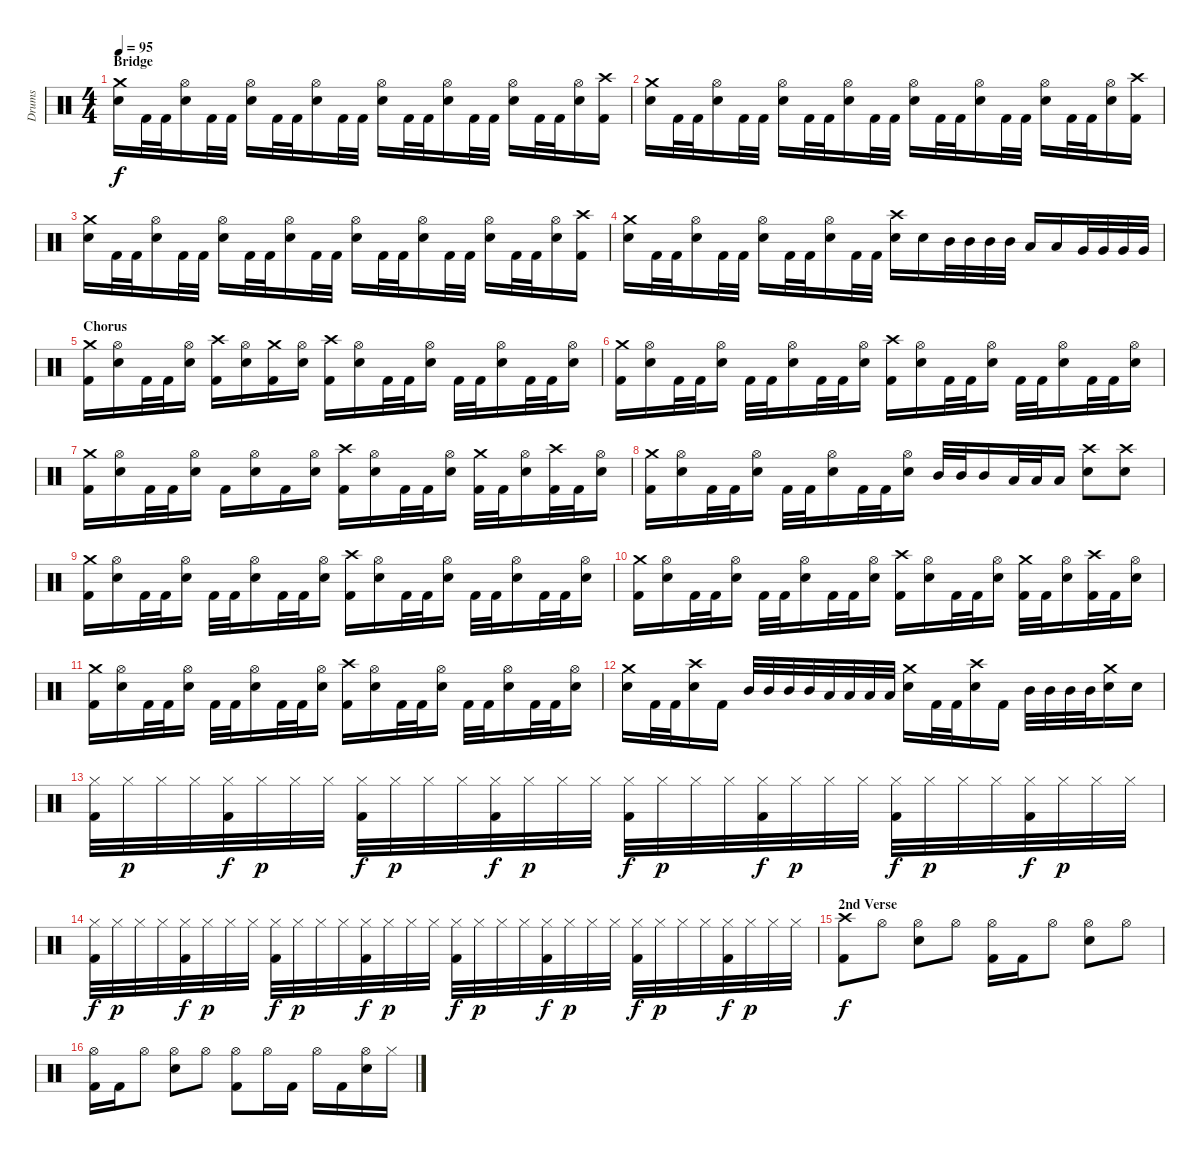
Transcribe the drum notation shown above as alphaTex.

\track ("Drums" "Drums") {instrument percussion}
\staff {score}
\articulation defaults
\ts (4 4)
\section ("" "Bridge")
\tempo 95
\clef neutral
\ks c
("Crash medium (hit)" "Snare (hit) 2").16{dy f} "Kick (hit) 2".32 "Kick (hit) 2".32 ("Hi-Hat (open)" "Snare (hit) 2").16 "Kick (hit) 2".32 "Kick (hit) 2".32 ("Hi-Hat (open)" "Snare (hit) 2").16 "Kick (hit) 2".32 "Kick (hit) 2".32 ("Hi-Hat (open)" "Snare (hit) 2").16 "Kick (hit) 2".32 "Kick (hit) 2".32 ("Hi-Hat (open)" "Snare (hit) 2").16 "Kick (hit) 2".32 "Kick (hit) 2".32 ("Hi-Hat (open)" "Snare (hit) 2").16 "Kick (hit) 2".32 "Kick (hit) 2".32 ("Hi-Hat (open)" "Snare (hit) 2").16 "Kick (hit) 2".32 "Kick (hit) 2".32 ("Hi-Hat (open)" "Snare (hit) 2").16 ("Crash high (hit)" "Kick (hit) 2").16 |
("Crash medium (hit)" "Snare (hit) 2").16 "Kick (hit) 2".32 "Kick (hit) 2".32 ("Hi-Hat (open)" "Snare (hit) 2").16 "Kick (hit) 2".32 "Kick (hit) 2".32 ("Hi-Hat (open)" "Snare (hit) 2").16 "Kick (hit) 2".32 "Kick (hit) 2".32 ("Hi-Hat (open)" "Snare (hit) 2").16 "Kick (hit) 2".32 "Kick (hit) 2".32 ("Hi-Hat (open)" "Snare (hit) 2").16 "Kick (hit) 2".32 "Kick (hit) 2".32 ("Hi-Hat (open)" "Snare (hit) 2").16 "Kick (hit) 2".32 "Kick (hit) 2".32 ("Hi-Hat (open)" "Snare (hit) 2").16 "Kick (hit) 2".32 "Kick (hit) 2".32 ("Hi-Hat (open)" "Snare (hit) 2").16 ("Crash high (hit)" "Kick (hit) 2").16 |
("Crash medium (hit)" "Snare (hit) 2").16 "Kick (hit) 2".32 "Kick (hit) 2".32 ("Hi-Hat (open)" "Snare (hit) 2").16 "Kick (hit) 2".32 "Kick (hit) 2".32 ("Hi-Hat (open)" "Snare (hit) 2").16 "Kick (hit) 2".32 "Kick (hit) 2".32 ("Hi-Hat (open)" "Snare (hit) 2").16 "Kick (hit) 2".32 "Kick (hit) 2".32 ("Hi-Hat (open)" "Snare (hit) 2").16 "Kick (hit) 2".32 "Kick (hit) 2".32 ("Hi-Hat (open)" "Snare (hit) 2").16 "Kick (hit) 2".32 "Kick (hit) 2".32 ("Hi-Hat (open)" "Snare (hit) 2").16 "Kick (hit) 2".32 "Kick (hit) 2".32 ("Hi-Hat (open)" "Snare (hit) 2").16 ("Crash high (hit)" "Kick (hit) 2").16 |
("Crash medium (hit)" "Snare (hit) 2").16 "Kick (hit) 2".32 "Kick (hit) 2".32 ("Hi-Hat (open)" "Snare (hit) 2").16 "Kick (hit) 2".32 "Kick (hit) 2".32 ("Hi-Hat (open)" "Snare (hit) 2").16 "Kick (hit) 2".32 "Kick (hit) 2".32 ("Hi-Hat (open)" "Snare (hit) 2").16 "Kick (hit) 2".32 "Kick (hit) 2".32 ("Crash high (hit)" "Snare (hit) 2").16 "Snare (hit) 2".16 "Mid Tom (hit)".32 "Mid Tom (hit)".32 "Mid Tom (hit)".32 "Mid Tom (hit)".32 "Low Tom (hit)".16 "Low Tom (hit)".16 "Very Low Tom (hit)".32 "Very Low Tom (hit)".32 "Very Low Tom (hit)".32 "Very Low Tom (hit)".32 |
\section ("" "Chorus")
("Crash medium (hit)" "Kick (hit) 2").16 ("Hi-Hat (open)" "Snare (hit) 2").16 "Kick (hit) 2".32 "Kick (hit) 2".32 ("Hi-Hat (open)" "Snare (hit) 2").16 ("Crash high (hit)" "Kick (hit) 2").16 ("Hi-Hat (open)" "Snare (hit) 2").16 ("Crash medium (hit)" "Kick (hit) 2").16 ("Hi-Hat (open)" "Snare (hit) 2").16 ("Crash high (hit)" "Kick (hit) 2").16 ("Hi-Hat (open)" "Snare (hit) 2").16 "Kick (hit) 2".32 "Kick (hit) 2".32 ("Hi-Hat (open)" "Snare (hit) 2").16 "Kick (hit) 2".32 "Kick (hit) 2".32 ("Hi-Hat (open)" "Snare (hit) 2").16 "Kick (hit) 2".32 "Kick (hit) 2".32 ("Hi-Hat (open)" "Snare (hit) 2").16 |
("Crash medium (hit)" "Kick (hit) 2").16 ("Hi-Hat (open)" "Snare (hit) 2").16 "Kick (hit) 2".32 "Kick (hit) 2".32 ("Hi-Hat (open)" "Snare (hit) 2").16 "Kick (hit) 2".32 "Kick (hit) 2".32 ("Hi-Hat (open)" "Snare (hit) 2").16 "Kick (hit) 2".32 "Kick (hit) 2".32 ("Hi-Hat (open)" "Snare (hit) 2").16 ("Crash high (hit)" "Kick (hit) 2").16 ("Hi-Hat (open)" "Snare (hit) 2").16 "Kick (hit) 2".32 "Kick (hit) 2".32 ("Hi-Hat (open)" "Snare (hit) 2").16 "Kick (hit) 2".32 "Kick (hit) 2".32 ("Hi-Hat (open)" "Snare (hit) 2").16 "Kick (hit) 2".32 "Kick (hit) 2".32 ("Hi-Hat (open)" "Snare (hit) 2").16 |
("Crash medium (hit)" "Kick (hit) 2").16 ("Hi-Hat (open)" "Snare (hit) 2").16 "Kick (hit) 2".32 "Kick (hit) 2".32 ("Hi-Hat (open)" "Snare (hit) 2").16 "Kick (hit) 2".16 ("Hi-Hat (open)" "Snare (hit) 2").16 "Kick (hit) 2".16 ("Hi-Hat (open)" "Snare (hit) 2").16 ("Crash high (hit)" "Kick (hit) 2").16 ("Hi-Hat (open)" "Snare (hit) 2").16 "Kick (hit) 2".32 "Kick (hit) 2".32 ("Hi-Hat (open)" "Snare (hit) 2").16 ("Crash medium (hit)" "Kick (hit) 2").32 "Kick (hit) 2".32 ("Hi-Hat (open)" "Snare (hit) 2").16 ("Crash high (hit)" "Kick (hit) 2").32 "Kick (hit) 2".32 ("Hi-Hat (open)" "Snare (hit) 2").16 |
("Crash medium (hit)" "Kick (hit) 2").16 ("Hi-Hat (open)" "Snare (hit) 2").16 "Kick (hit) 2".32 "Kick (hit) 2".32 ("Hi-Hat (open)" "Snare (hit) 2").16 "Kick (hit) 2".32 "Kick (hit) 2".32 ("Hi-Hat (open)" "Snare (hit) 2").16 "Kick (hit) 2".32 "Kick (hit) 2".32 ("Hi-Hat (open)" "Snare (hit) 2").16 "Mid Tom (hit)".32 "Mid Tom (hit)".32 "Mid Tom (hit)".16 "Low Tom (hit)".32 "Low Tom (hit)".32 "Low Tom (hit)".16 ("Crash high (hit)" "Snare (hit) 2").8 ("Crash high (hit)" "Snare (hit) 2").8 |
("Crash medium (hit)" "Kick (hit) 2").16 ("Hi-Hat (open)" "Snare (hit) 2").16 "Kick (hit) 2".32 "Kick (hit) 2".32 ("Hi-Hat (open)" "Snare (hit) 2").16 "Kick (hit) 2".32 "Kick (hit) 2".32 ("Hi-Hat (open)" "Snare (hit) 2").16 "Kick (hit) 2".32 "Kick (hit) 2".32 ("Hi-Hat (open)" "Snare (hit) 2").16 ("Crash high (hit)" "Kick (hit) 2").16 ("Hi-Hat (open)" "Snare (hit) 2").16 "Kick (hit) 2".32 "Kick (hit) 2".32 ("Hi-Hat (open)" "Snare (hit) 2").16 "Kick (hit) 2".32 "Kick (hit) 2".32 ("Hi-Hat (open)" "Snare (hit) 2").16 "Kick (hit) 2".32 "Kick (hit) 2".32 ("Hi-Hat (open)" "Snare (hit) 2").16 |
("Crash medium (hit)" "Kick (hit) 2").16 ("Hi-Hat (open)" "Snare (hit) 2").16 "Kick (hit) 2".32 "Kick (hit) 2".32 ("Hi-Hat (open)" "Snare (hit) 2").16 "Kick (hit) 2".32 "Kick (hit) 2".32 ("Hi-Hat (open)" "Snare (hit) 2").16 "Kick (hit) 2".32 "Kick (hit) 2".32 ("Hi-Hat (open)" "Snare (hit) 2").16 ("Crash high (hit)" "Kick (hit) 2").16 ("Hi-Hat (open)" "Snare (hit) 2").16 "Kick (hit) 2".32 "Kick (hit) 2".32 ("Hi-Hat (open)" "Snare (hit) 2").16 ("Crash medium (hit)" "Kick (hit) 2").32 "Kick (hit) 2".32 ("Hi-Hat (open)" "Snare (hit) 2").16 ("Crash high (hit)" "Kick (hit) 2").32 "Kick (hit) 2".32 ("Hi-Hat (open)" "Snare (hit) 2").16 |
("Crash medium (hit)" "Kick (hit) 2").16 ("Hi-Hat (open)" "Snare (hit) 2").16 "Kick (hit) 2".32 "Kick (hit) 2".32 ("Hi-Hat (open)" "Snare (hit) 2").16 "Kick (hit) 2".32 "Kick (hit) 2".32 ("Hi-Hat (open)" "Snare (hit) 2").16 "Kick (hit) 2".32 "Kick (hit) 2".32 ("Hi-Hat (open)" "Snare (hit) 2").16 ("Crash high (hit)" "Kick (hit) 2").16 ("Hi-Hat (open)" "Snare (hit) 2").16 "Kick (hit) 2".32 "Kick (hit) 2".32 ("Hi-Hat (open)" "Snare (hit) 2").16 "Kick (hit) 2".32 "Kick (hit) 2".32 ("Hi-Hat (open)" "Snare (hit) 2").16 "Kick (hit) 2".32 "Kick (hit) 2".32 ("Hi-Hat (open)" "Snare (hit) 2").16 |
("Crash medium (hit)" "Snare (hit) 2").16 "Kick (hit) 2".32 "Kick (hit) 2".32 ("Crash high (hit)" "Snare (hit) 2").16 "Kick (hit) 2".16 "Mid Tom (hit)".32 "Mid Tom (hit)".32 "Mid Tom (hit)".32 "Mid Tom (hit)".32 "Low Tom (hit)".32 "Low Tom (hit)".32 "Low Tom (hit)".32 "Low Tom (hit)".32 ("Crash medium (hit)" "Snare (hit) 2").16 "Kick (hit) 2".32 "Kick (hit) 2".32 ("Crash high (hit)" "Snare (hit) 2").16 "Kick (hit) 2".16 "Mid Tom (hit)".32 "Mid Tom (hit)".32 "Mid Tom (hit)".32 "Mid Tom (hit)".32 ("Crash medium (hit)" "Snare (hit) 2").16 "Snare (hit) 2".16 |
\section ("" "")
("Hi-Hat (closed)" "Kick (hit) 2").32 "Hi-Hat (closed)".32{dy p} "Hi-Hat (closed)".32 "Hi-Hat (closed)".32 ("Hi-Hat (closed)" "Kick (hit) 2").32{dy f} "Hi-Hat (closed)".32{dy p} "Hi-Hat (closed)".32 "Hi-Hat (closed)".32 ("Hi-Hat (closed)" "Kick (hit) 2").32{dy f} "Hi-Hat (closed)".32{dy p} "Hi-Hat (closed)".32 "Hi-Hat (closed)".32 ("Hi-Hat (closed)" "Kick (hit) 2").32{dy f} "Hi-Hat (closed)".32{dy p} "Hi-Hat (closed)".32 "Hi-Hat (closed)".32 ("Hi-Hat (closed)" "Kick (hit) 2").32{dy f} "Hi-Hat (closed)".32{dy p} "Hi-Hat (closed)".32 "Hi-Hat (closed)".32 ("Hi-Hat (closed)" "Kick (hit) 2").32{dy f} "Hi-Hat (closed)".32{dy p} "Hi-Hat (closed)".32 "Hi-Hat (closed)".32 ("Hi-Hat (closed)" "Kick (hit) 2").32{dy f} "Hi-Hat (closed)".32{dy p} "Hi-Hat (closed)".32 "Hi-Hat (closed)".32 ("Hi-Hat (closed)" "Kick (hit) 2").32{dy f} "Hi-Hat (closed)".32{dy p} "Hi-Hat (closed)".32 "Hi-Hat (closed)".32 |
("Hi-Hat (closed)" "Kick (hit) 2").32{dy f} "Hi-Hat (closed)".32{dy p} "Hi-Hat (closed)".32 "Hi-Hat (closed)".32 ("Hi-Hat (closed)" "Kick (hit) 2").32{dy f} "Hi-Hat (closed)".32{dy p} "Hi-Hat (closed)".32 "Hi-Hat (closed)".32 ("Hi-Hat (closed)" "Kick (hit) 2").32{dy f} "Hi-Hat (closed)".32{dy p} "Hi-Hat (closed)".32 "Hi-Hat (closed)".32 ("Hi-Hat (closed)" "Kick (hit) 2").32{dy f} "Hi-Hat (closed)".32{dy p} "Hi-Hat (closed)".32 "Hi-Hat (closed)".32 ("Hi-Hat (closed)" "Kick (hit) 2").32{dy f} "Hi-Hat (closed)".32{dy p} "Hi-Hat (closed)".32 "Hi-Hat (closed)".32 ("Hi-Hat (closed)" "Kick (hit) 2").32{dy f} "Hi-Hat (closed)".32{dy p} "Hi-Hat (closed)".32 "Hi-Hat (closed)".32 ("Hi-Hat (closed)" "Kick (hit) 2").32{dy f} "Hi-Hat (closed)".32{dy p} "Hi-Hat (closed)".32 "Hi-Hat (closed)".32 ("Hi-Hat (closed)" "Kick (hit) 2").32{dy f} "Hi-Hat (closed)".32{dy p} "Hi-Hat (closed)".32 "Hi-Hat (closed)".32 |
\section ("" "2nd Verse")
("Crash high (hit)" "Kick (hit) 2").8{dy f} "Hi-Hat (open)".8 ("Hi-Hat (open)" "Snare (hit) 2").8 "Hi-Hat (open)".8 ("Hi-Hat (open)" "Kick (hit) 2").16 "Kick (hit) 2".16 "Hi-Hat (open)".8 ("Hi-Hat (open)" "Snare (hit) 2").8 "Hi-Hat (open)".8 |
("Hi-Hat (open)" "Kick (hit) 2").16 "Kick (hit) 2".16 "Hi-Hat (open)".8 ("Hi-Hat (open)" "Snare (hit) 2").8 "Hi-Hat (open)".8 ("Hi-Hat (open)" "Kick (hit) 2").8 "Hi-Hat (open)".16 "Kick (hit) 2".16 "Hi-Hat (open)".16 "Kick (hit) 2".16 ("Hi-Hat (open)" "Snare (hit) 2").16 "Hi-Hat (closed)".16
